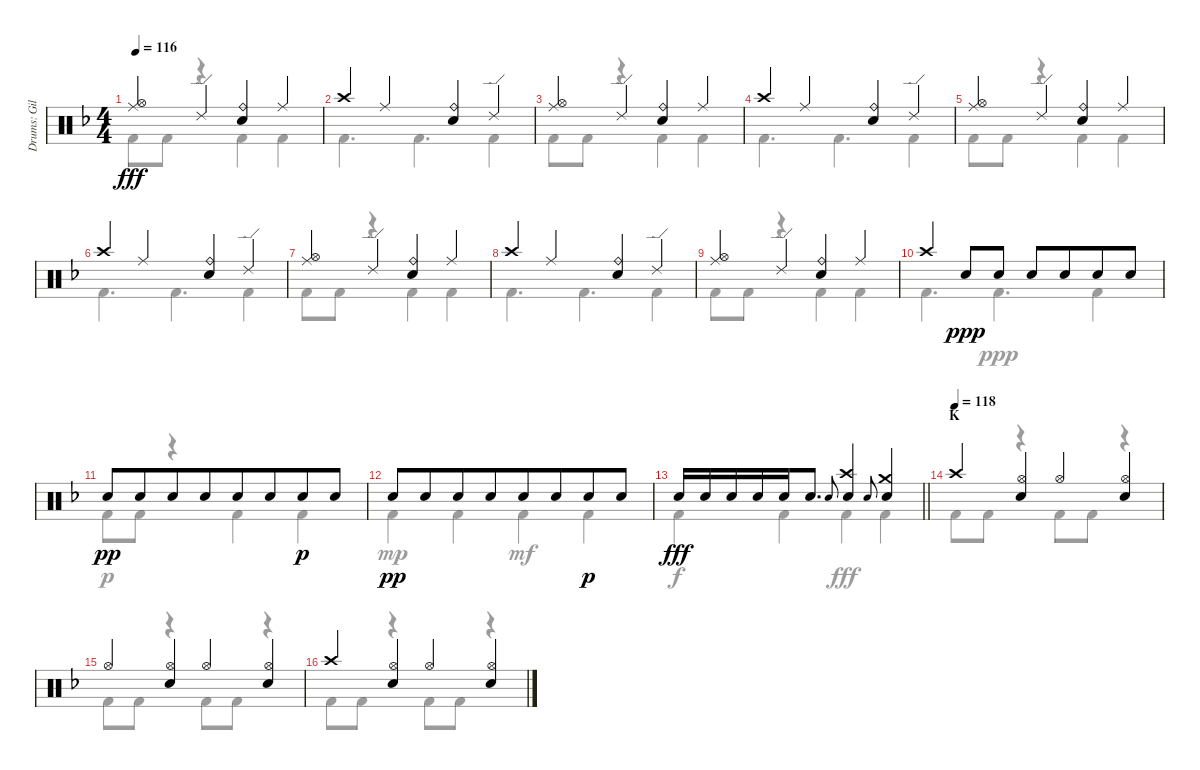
\track ("Drums: Gil" "Drums: Gil") {instrument percussion}
\staff {score}
\articulation defaults
\voice
\ts (4 4)
\tempo 116
\clef neutral
\ks f
("Ride (middle)" "Hi-Hat (open)").4{dy fff beam merge} "Ride (edge) 2".4 ("Ride (bell)" "Snare (hit) 2").4{beam merge} "Ride (middle)".4 |
"Crash high (hit)".4{beam merge} "Ride (middle)".4 ("Ride (bell)" "Snare (hit) 2").4{beam merge} "Ride (edge) 2".4 |
("Ride (middle)" "Hi-Hat (open)").4{beam merge} "Ride (edge) 2".4 ("Ride (bell)" "Snare (hit) 2").4{beam merge} "Ride (middle)".4 |
"Crash high (hit)".4{beam merge} "Ride (middle)".4 ("Ride (bell)" "Snare (hit) 2").4{beam merge} "Ride (edge) 2".4 |
("Ride (middle)" "Hi-Hat (open)").4{beam merge} "Ride (edge) 2".4 ("Ride (bell)" "Snare (hit) 2").4{beam merge} "Ride (middle)".4 |
"Crash high (hit)".4{beam merge} "Ride (middle)".4 ("Ride (bell)" "Snare (hit) 2").4{beam merge} "Ride (edge) 2".4 |
("Ride (middle)" "Hi-Hat (open)").4{beam merge} "Ride (edge) 2".4 ("Ride (bell)" "Snare (hit) 2").4{beam merge} "Ride (middle)".4 |
"Crash high (hit)".4{beam merge} "Ride (middle)".4 ("Ride (bell)" "Snare (hit) 2").4{beam merge} "Ride (edge) 2".4 |
("Ride (middle)" "Hi-Hat (open)").4{beam merge} "Ride (edge) 2".4 ("Ride (bell)" "Snare (hit) 2").4{beam merge} "Ride (middle)".4 |
"Crash high (hit)".4 "Snare (hit) 2".8{dy ppp beam merge} "Snare (hit) 2".8 "Snare (hit) 2".8 "Snare (hit) 2".8{beam merge} "Snare (hit) 2".8 "Snare (hit) 2".8 |
"Snare (hit) 2".8{dy pp} "Snare (hit) 2".8{beam merge} "Snare (hit) 2".8 "Snare (hit) 2".8{beam merge} "Snare (hit) 2".8 "Snare (hit) 2".8{beam merge} "Snare (hit) 2".8{dy p} "Snare (hit) 2".8 |
"Snare (hit) 2".8{dy pp} "Snare (hit) 2".8{beam merge} "Snare (hit) 2".8 "Snare (hit) 2".8{beam merge} "Snare (hit) 2".8 "Snare (hit) 2".8{beam merge} "Snare (hit) 2".8{dy p} "Snare (hit) 2".8 |
\barLineRight lightlight "Snare (hit) 2".16{dy fff} "Snare (hit) 2".16{beam merge} "Snare (hit) 2".16 "Snare (hit) 2".16{beam merge} "Snare (hit) 2".16 "Snare (hit) 2".8{d} "Electric Snare (hit)".8{gr onbeat beam merge}
("Crash high (hit)" "Snare (hit) 2").4 "Electric Snare (hit)".8{gr onbeat beam merge} ("Crash medium (hit)" "Snare (hit) 2").4 |
\section ("" "K")
\tempo (118)
"Crash high (hit)".4{beam merge} ("Hi-Hat (open)" "Snare (hit) 2").4 "Hi-Hat (open)".4{beam merge} ("Hi-Hat (open)" "Snare (hit) 2").4 |
"Hi-Hat (open)".4{beam merge} ("Hi-Hat (open)" "Snare (hit) 2").4 "Hi-Hat (open)".4{beam merge} ("Hi-Hat (open)" "Snare (hit) 2").4 |
"Crash high (hit)".4{beam merge} ("Hi-Hat (open)" "Snare (hit) 2").4 "Hi-Hat (open)".4{beam merge} ("Hi-Hat (open)" "Snare (hit) 2").4
\voice
\clef neutral
\ottava regular
\simile none
\ks f "Kick (hit) 2".8{dy fff} "Kick (hit) 2".8
r.4 "Kick (hit) 2".4 "Kick (hit) 2".4 |
"Kick (hit) 2".4{d} "Kick (hit) 2".4{d} "Kick (hit) 2".4 |
"Kick (hit) 2".8 "Kick (hit) 2".8 r.4 "Kick (hit) 2".4 "Kick (hit) 2".4 |
"Kick (hit) 2".4{d} "Kick (hit) 2".4{d} "Kick (hit) 2".4 |
"Kick (hit) 2".8 "Kick (hit) 2".8 r.4 "Kick (hit) 2".4 "Kick (hit) 2".4 |
"Kick (hit) 2".4{d} "Kick (hit) 2".4{d} "Kick (hit) 2".4 |
"Kick (hit) 2".8 "Kick (hit) 2".8 r.4 "Kick (hit) 2".4 "Kick (hit) 2".4 |
"Kick (hit) 2".4{d} "Kick (hit) 2".4{d} "Kick (hit) 2".4 |
"Kick (hit) 2".8 "Kick (hit) 2".8 r.4 "Kick (hit) 2".4 "Kick (hit) 2".4 |
"Kick (hit) 2".4{d} "Kick (hit) 2".4{d dy ppp} "Kick (hit) 2".4 |
"Kick (hit) 2".8{dy p} "Kick (hit) 2".8 r.4 "Kick (hit) 2".4 "Kick (hit) 2".4 |
"Kick (hit) 2".4{dy mp} "Kick (hit) 2".4 "Kick (hit) 2".4{dy mf} "Kick (hit) 2".4 |
\barLineRight lightlight "Kick (hit) 2".4{dy f} "Kick (hit) 2".4 "Kick (hit) 2".4{dy fff} "Kick (hit) 2".4
|
"Kick (hit) 2".8 "Kick (hit) 2".8 r.4 "Kick (hit) 2".8 "Kick (hit) 2".8 r.4 |
"Kick (hit) 2".8 "Kick (hit) 2".8 r.4 "Kick (hit) 2".8 "Kick (hit) 2".8 r.4 |
"Kick (hit) 2".8 "Kick (hit) 2".8 r.4 "Kick (hit) 2".8 "Kick (hit) 2".8 r.4
